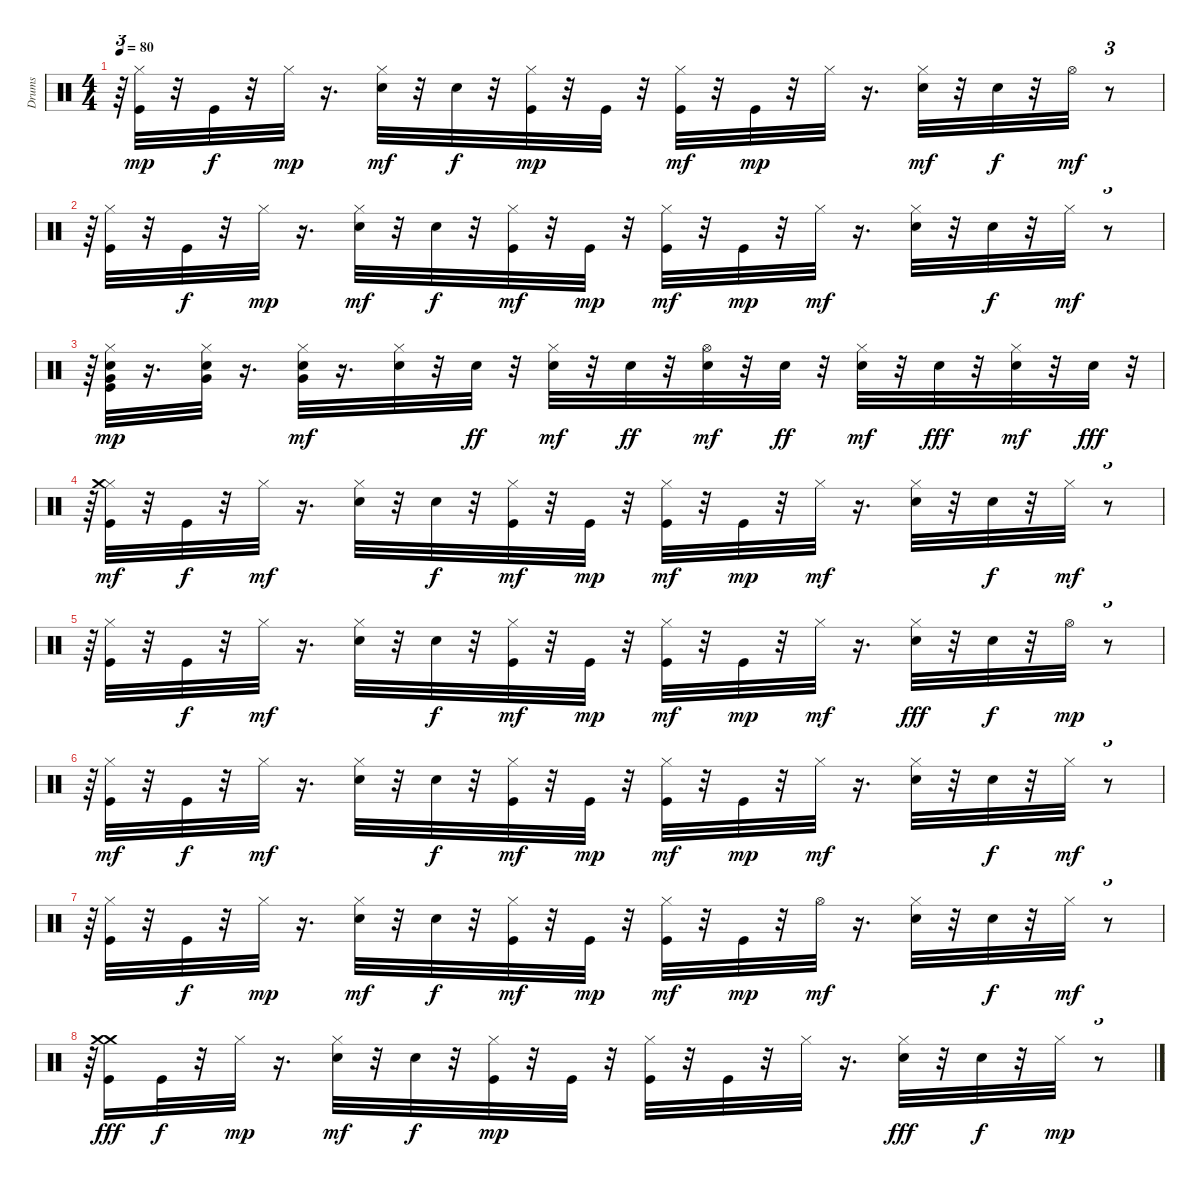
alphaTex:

\track ("Drums" "Drums") {instrument percussion}
\staff {score}
\articulation defaults
\ts (4 4)
\tempo 80
\clef neutral
\ks c
r.64{tu (3 2) dy mp} ("Kick (hit)" "Hi-Hat (closed)").32 r.32 "Kick (hit)".32{dy f} r.32 "Hi-Hat (closed)".32{dy mp} r.16{d} ("Snare (hit) 2" "Hi-Hat (closed)").32{dy mf} r.32 "Snare (hit) 2".32{dy f} r.32 ("Kick (hit)" "Hi-Hat (closed)").32{dy mp} r.32 "Kick (hit)".32 r.32 ("Kick (hit)" "Hi-Hat (closed)").32{dy mf} r.32 "Kick (hit)".32{dy mp} r.32 "Hi-Hat (closed)".32 r.16{d} ("Snare (hit) 2" "Hi-Hat (closed)").32{dy mf} r.32 "Snare (hit) 2".32{dy f} r.32 "Hi-Hat (open)".32{dy mf} r.8{tu (3 2)} |
r.64{tu (3 2)} ("Kick (hit)" "Hi-Hat (closed)").32 r.32 "Kick (hit)".32{dy f} r.32 "Hi-Hat (closed)".32{dy mp} r.16{d} ("Snare (hit) 2" "Hi-Hat (closed)").32{dy mf} r.32 "Snare (hit) 2".32{dy f} r.32 ("Kick (hit)" "Hi-Hat (closed)").32{dy mf} r.32 "Kick (hit)".32{dy mp} r.32 ("Kick (hit)" "Hi-Hat (closed)").32{dy mf} r.32 "Kick (hit)".32{dy mp} r.32 "Hi-Hat (closed)".32{dy mf} r.16{d} ("Snare (hit) 2" "Hi-Hat (closed)").32 r.32 "Snare (hit) 2".32{dy f} r.32 "Hi-Hat (closed)".32{dy mf} r.8{tu (3 2)} |
r.64{tu (3 2)} ("Kick (hit)" "Snare (hit) 2" "Hi-Hat (closed)" "Very Low Tom (hit)").32{dy mp} r.16{d} ("Snare (hit) 2" "Hi-Hat (closed)" "Very Low Tom (hit)").32 r.16{d} ("Snare (hit) 2" "Hi-Hat (closed)" "Very Low Tom (hit)").32{dy mf} r.16{d} ("Snare (hit) 2" "Hi-Hat (closed)").32 r.32 "Snare (hit) 2".32{dy ff} r.32 ("Snare (hit) 2" "Hi-Hat (closed)").32{dy mf} r.32 "Snare (hit) 2".32{dy ff} r.32 ("Snare (hit) 2" "Hi-Hat (open)").32{dy mf} r.32 "Snare (hit) 2".32{dy ff} r.32 ("Snare (hit) 2" "Hi-Hat (closed)").32{dy mf} r.32 "Snare (hit) 2".32{dy fff} r.32 ("Snare (hit) 2" "Hi-Hat (closed)").32{dy mf} r.32 "Snare (hit) 2".32{dy fff} r.32{tu (3 2)} |
r.64{tu (3 2)} ("Kick (hit)" "Hi-Hat (closed)" "Crash medium (hit)").32{dy mf} r.32 "Kick (hit)".32{dy f} r.32 "Hi-Hat (closed)".32{dy mf} r.16{d} ("Snare (hit) 2" "Hi-Hat (closed)").32 r.32 "Snare (hit) 2".32{dy f} r.32 ("Kick (hit)" "Hi-Hat (closed)").32{dy mf} r.32 "Kick (hit)".32{dy mp} r.32 ("Kick (hit)" "Hi-Hat (closed)").32{dy mf} r.32 "Kick (hit)".32{dy mp} r.32 "Hi-Hat (closed)".32{dy mf} r.16{d} ("Snare (hit) 2" "Hi-Hat (closed)").32 r.32 "Snare (hit) 2".32{dy f} r.32 "Hi-Hat (closed)".32{dy mf} r.8{tu (3 2)} |
r.64{tu (3 2)} ("Kick (hit)" "Hi-Hat (closed)").32 r.32 "Kick (hit)".32{dy f} r.32 "Hi-Hat (closed)".32{dy mf} r.16{d} ("Snare (hit) 2" "Hi-Hat (closed)").32 r.32 "Snare (hit) 2".32{dy f} r.32 ("Kick (hit)" "Hi-Hat (closed)").32{dy mf} r.32 "Kick (hit)".32{dy mp} r.32 ("Kick (hit)" "Hi-Hat (closed)").32{dy mf} r.32 "Kick (hit)".32{dy mp} r.32 "Hi-Hat (closed)".32{dy mf} r.16{d} ("Snare (hit) 2" "Hi-Hat (closed)").32{dy fff} r.32 "Snare (hit) 2".32{dy f} r.32 "Hi-Hat (open)".32{dy mp} r.8{tu (3 2)} |
r.64{tu (3 2)} ("Kick (hit)" "Hi-Hat (closed)").32{dy mf} r.32 "Kick (hit)".32{dy f} r.32 "Hi-Hat (closed)".32{dy mf} r.16{d} ("Snare (hit) 2" "Hi-Hat (closed)").32 r.32 "Snare (hit) 2".32{dy f} r.32 ("Kick (hit)" "Hi-Hat (closed)").32{dy mf} r.32 "Kick (hit)".32{dy mp} r.32 ("Kick (hit)" "Hi-Hat (closed)").32{dy mf} r.32 "Kick (hit)".32{dy mp} r.32 "Hi-Hat (closed)".32{dy mf} r.16{d} ("Snare (hit) 2" "Hi-Hat (closed)").32 r.32 "Snare (hit) 2".32{dy f} r.32 "Hi-Hat (closed)".32{dy mf} r.8{tu (3 2)} |
r.64{tu (3 2)} ("Kick (hit)" "Hi-Hat (closed)").32 r.32 "Kick (hit)".32{dy f} r.32 "Hi-Hat (closed)".32{dy mp} r.16{d} ("Snare (hit) 2" "Hi-Hat (closed)").32{dy mf} r.32 "Snare (hit) 2".32{dy f} r.32 ("Kick (hit)" "Hi-Hat (closed)").32{dy mf} r.32 "Kick (hit)".32{dy mp} r.32 ("Kick (hit)" "Hi-Hat (closed)").32{dy mf} r.32 "Kick (hit)".32{dy mp} r.32 "Hi-Hat (open)".32{dy mf} r.16{d} ("Snare (hit) 2" "Hi-Hat (closed)").32 r.32 "Snare (hit) 2".32{dy f} r.32 "Hi-Hat (closed)".32{dy mf} r.8{tu (3 2)} |
r.64{tu (3 2)} ("Kick (hit)" "Crash medium (hit)" "Crash medium (hit)").16{dy fff} "Kick (hit)".32{dy f} r.32 "Hi-Hat (closed)".32{dy mp} r.16{d} ("Snare (hit) 2" "Hi-Hat (closed)").32{dy mf} r.32 "Snare (hit) 2".32{dy f} r.32 ("Kick (hit)" "Hi-Hat (closed)").32{dy mp} r.32 "Kick (hit)".32 r.32 ("Kick (hit)" "Hi-Hat (closed)").32 r.32 "Kick (hit)".32 r.32 "Hi-Hat (closed)".32 r.16{d} ("Snare (hit) 2" "Hi-Hat (closed)").32{dy fff} r.32 "Snare (hit) 2".32{dy f} r.32 "Hi-Hat (closed)".32{dy mp} r.8{tu (3 2)}
